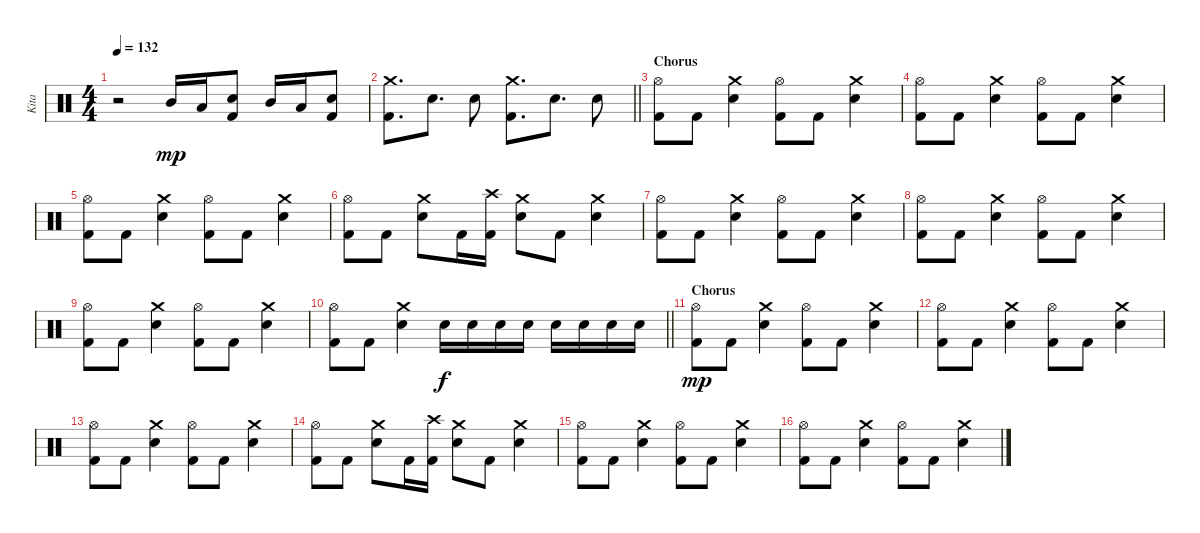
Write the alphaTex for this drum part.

\track ("Kita" "Kita") {instrument percussion}
\staff {score}
\articulation defaults
\ts (4 4)
\tempo 132
\clef neutral
\ks c
r.2{dy mp} "Mid Tom (hit)".16 "Low Tom (hit)".16 ("Snare (hit) 2" "Kick (hit) 2").8 "Mid Tom (hit)".16 "Low Tom (hit)".16 ("Snare (hit) 2" "Kick (hit) 2").8 |
\barLineRight lightlight
("Crash medium (hit)" "Kick (hit) 2").8{d} "Snare (hit) 2".8{d} "Snare (hit) 2".8 ("Crash medium (hit)" "Kick (hit) 2").8{d} "Snare (hit) 2".8{d} "Snare (hit) 2".8 |
\section ("" "Chorus")
("Hi-Hat (open)" "Kick (hit) 2").8 "Kick (hit) 2".8 ("Crash medium (hit)" "Snare (hit) 2").4 ("Hi-Hat (open)" "Kick (hit) 2").8 "Kick (hit) 2".8 ("Crash medium (hit)" "Snare (hit) 2").4 |
("Hi-Hat (open)" "Kick (hit) 2").8 "Kick (hit) 2".8 ("Crash medium (hit)" "Snare (hit) 2").4 ("Hi-Hat (open)" "Kick (hit) 2").8 "Kick (hit) 2".8 ("Crash medium (hit)" "Snare (hit) 2").4 |
("Hi-Hat (open)" "Kick (hit) 2").8 "Kick (hit) 2".8 ("Crash medium (hit)" "Snare (hit) 2").4 ("Hi-Hat (open)" "Kick (hit) 2").8 "Kick (hit) 2".8 ("Crash medium (hit)" "Snare (hit) 2").4 |
("Hi-Hat (open)" "Kick (hit) 2").8 "Kick (hit) 2".8 ("Crash medium (hit)" "Snare (hit) 2").8 "Kick (hit) 2".16 ("Crash high (hit)" "Kick (hit) 2").16 ("Crash medium (hit)" "Snare (hit) 2").8 "Kick (hit) 2".8 ("Crash medium (hit)" "Snare (hit) 2").4 |
("Hi-Hat (open)" "Kick (hit) 2").8 "Kick (hit) 2".8 ("Crash medium (hit)" "Snare (hit) 2").4 ("Hi-Hat (open)" "Kick (hit) 2").8 "Kick (hit) 2".8 ("Crash medium (hit)" "Snare (hit) 2").4 |
("Hi-Hat (open)" "Kick (hit) 2").8 "Kick (hit) 2".8 ("Crash medium (hit)" "Snare (hit) 2").4 ("Hi-Hat (open)" "Kick (hit) 2").8 "Kick (hit) 2".8 ("Crash medium (hit)" "Snare (hit) 2").4 |
("Hi-Hat (open)" "Kick (hit) 2").8 "Kick (hit) 2".8 ("Crash medium (hit)" "Snare (hit) 2").4 ("Hi-Hat (open)" "Kick (hit) 2").8 "Kick (hit) 2".8 ("Crash medium (hit)" "Snare (hit) 2").4 |
\barLineRight lightlight
("Hi-Hat (open)" "Kick (hit) 2").8 "Kick (hit) 2".8 ("Crash medium (hit)" "Snare (hit) 2").4 "Snare (hit) 2".16{dy f} "Snare (hit) 2".16 "Snare (hit) 2".16 "Snare (hit) 2".16 "Snare (hit) 2".16 "Snare (hit) 2".16 "Snare (hit) 2".16 "Snare (hit) 2".16 |
\section ("" "Chorus")
("Hi-Hat (open)" "Kick (hit) 2").8{dy mp} "Kick (hit) 2".8 ("Crash medium (hit)" "Snare (hit) 2").4 ("Hi-Hat (open)" "Kick (hit) 2").8 "Kick (hit) 2".8 ("Crash medium (hit)" "Snare (hit) 2").4 |
("Hi-Hat (open)" "Kick (hit) 2").8 "Kick (hit) 2".8 ("Crash medium (hit)" "Snare (hit) 2").4 ("Hi-Hat (open)" "Kick (hit) 2").8 "Kick (hit) 2".8 ("Crash medium (hit)" "Snare (hit) 2").4 |
("Hi-Hat (open)" "Kick (hit) 2").8 "Kick (hit) 2".8 ("Crash medium (hit)" "Snare (hit) 2").4 ("Hi-Hat (open)" "Kick (hit) 2").8 "Kick (hit) 2".8 ("Crash medium (hit)" "Snare (hit) 2").4 |
("Hi-Hat (open)" "Kick (hit) 2").8 "Kick (hit) 2".8 ("Crash medium (hit)" "Snare (hit) 2").8 "Kick (hit) 2".16 ("Crash high (hit)" "Kick (hit) 2").16 ("Crash medium (hit)" "Snare (hit) 2").8 "Kick (hit) 2".8 ("Crash medium (hit)" "Snare (hit) 2").4 |
("Hi-Hat (open)" "Kick (hit) 2").8 "Kick (hit) 2".8 ("Crash medium (hit)" "Snare (hit) 2").4 ("Hi-Hat (open)" "Kick (hit) 2").8 "Kick (hit) 2".8 ("Crash medium (hit)" "Snare (hit) 2").4 |
("Hi-Hat (open)" "Kick (hit) 2").8 "Kick (hit) 2".8 ("Crash medium (hit)" "Snare (hit) 2").4 ("Hi-Hat (open)" "Kick (hit) 2").8 "Kick (hit) 2".8 ("Crash medium (hit)" "Snare (hit) 2").4
